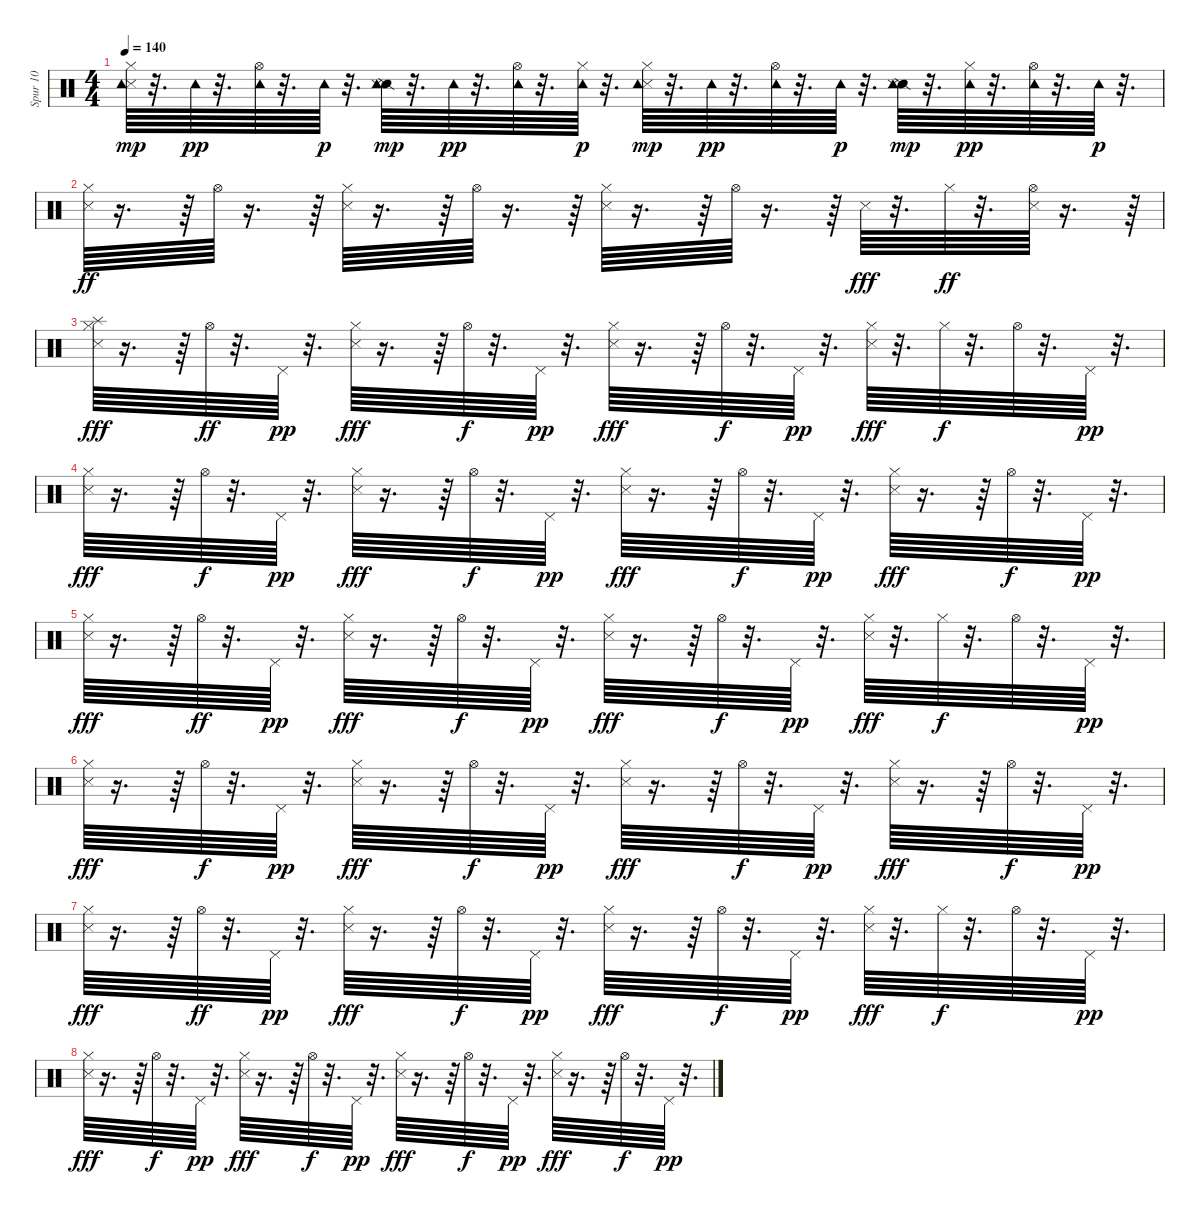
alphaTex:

\track ("Spur 10" "Spur 10") {instrument percussion}
\staff {score}
\articulation defaults
\ts (4 4)
\tempo 140
\clef neutral
\ks c
("Metronome (hit)" "Hi-Hat (closed)" "Tambourine (hit)").64{dy mp} r.32{d} "Tambourine (hit)".64{dy pp} r.32{d} ("Hi-Hat (open)" "Tambourine (hit)").64 r.32{d} "Tambourine (hit)".64{dy p} r.32{d} ("Snare (side stick) 2" "Metronome (hit)" "Tambourine (hit)").64{dy mp} r.32{d} "Tambourine (hit)".64{dy pp} r.32{d} ("Hi-Hat (open)" "Tambourine (hit)").64 r.32{d} ("Hi-Hat (closed)" "Tambourine (hit)").64{dy p} r.32{d} ("Metronome (hit)" "Hi-Hat (closed)" "Tambourine (hit)").64{dy mp} r.32{d} "Tambourine (hit)".64{dy pp} r.32{d} ("Hi-Hat (open)" "Tambourine (hit)").64 r.32{d} "Tambourine (hit)".64{dy p} r.32{d} ("Snare (side stick) 2" "Metronome (hit)" "Tambourine (hit)").64{dy mp} r.32{d} ("Hi-Hat (closed)" "Tambourine (hit)").64{dy pp} r.32{d} ("Hi-Hat (open)" "Tambourine (hit)").64 r.32{d} "Tambourine (hit)".64{dy p} r.32{d} |
("Metronome (hit)" "Hi-Hat (closed)").64{dy ff} r.16{d} r.64 "Hi-Hat (open)".64 r.16{d} r.64 ("Metronome (hit)" "Hi-Hat (closed)").64 r.16{d} r.64 "Hi-Hat (open)".64 r.16{d} r.64 ("Metronome (hit)" "Hi-Hat (closed)").64 r.16{d} r.64 "Hi-Hat (open)".64 r.16{d} r.64 "Metronome (hit)".64{dy fff} r.32{d} "Hi-Hat (closed)".64{dy ff} r.32{d} ("Metronome (hit)" "Hi-Hat (open)").64 r.16{d} r.64 |
("Splash (hit)" "Metronome (hit)" "Hi-Hat (closed)").64{dy fff} r.16{d} r.64 "Hi-Hat (open)".64{dy ff} r.32{d} "Pedal Hi-Hat (hit)".64{dy pp} r.32{d} ("Metronome (hit)" "Hi-Hat (closed)").64{dy fff} r.16{d} r.64 "Hi-Hat (open)".64{dy f} r.32{d} "Pedal Hi-Hat (hit)".64{dy pp} r.32{d} ("Metronome (hit)" "Hi-Hat (closed)").64{dy fff} r.16{d} r.64 "Hi-Hat (open)".64{dy f} r.32{d} "Pedal Hi-Hat (hit)".64{dy pp} r.32{d} ("Metronome (hit)" "Hi-Hat (closed)").64{dy fff} r.32{d} "Hi-Hat (closed)".64{dy f} r.32{d} "Hi-Hat (open)".64 r.32{d} "Pedal Hi-Hat (hit)".64{dy pp} r.32{d} |
("Metronome (hit)" "Hi-Hat (closed)").64{dy fff} r.16{d} r.64 "Hi-Hat (open)".64{dy f} r.32{d} "Pedal Hi-Hat (hit)".64{dy pp} r.32{d} ("Metronome (hit)" "Hi-Hat (closed)").64{dy fff} r.16{d} r.64 "Hi-Hat (open)".64{dy f} r.32{d} "Pedal Hi-Hat (hit)".64{dy pp} r.32{d} ("Metronome (hit)" "Hi-Hat (closed)").64{dy fff} r.16{d} r.64 "Hi-Hat (open)".64{dy f} r.32{d} "Pedal Hi-Hat (hit)".64{dy pp} r.32{d} ("Metronome (hit)" "Hi-Hat (closed)").64{dy fff} r.16{d} r.64 "Hi-Hat (open)".64{dy f} r.32{d} "Pedal Hi-Hat (hit)".64{dy pp} r.32{d} |
("Metronome (hit)" "Hi-Hat (closed)").64{dy fff} r.16{d} r.64 "Hi-Hat (open)".64{dy ff} r.32{d} "Pedal Hi-Hat (hit)".64{dy pp} r.32{d} ("Metronome (hit)" "Hi-Hat (closed)").64{dy fff} r.16{d} r.64 "Hi-Hat (open)".64{dy f} r.32{d} "Pedal Hi-Hat (hit)".64{dy pp} r.32{d} ("Metronome (hit)" "Hi-Hat (closed)").64{dy fff} r.16{d} r.64 "Hi-Hat (open)".64{dy f} r.32{d} "Pedal Hi-Hat (hit)".64{dy pp} r.32{d} ("Metronome (hit)" "Hi-Hat (closed)").64{dy fff} r.32{d} "Hi-Hat (closed)".64{dy f} r.32{d} "Hi-Hat (open)".64 r.32{d} "Pedal Hi-Hat (hit)".64{dy pp} r.32{d} |
("Metronome (hit)" "Hi-Hat (closed)").64{dy fff} r.16{d} r.64 "Hi-Hat (open)".64{dy f} r.32{d} "Pedal Hi-Hat (hit)".64{dy pp} r.32{d} ("Metronome (hit)" "Hi-Hat (closed)").64{dy fff} r.16{d} r.64 "Hi-Hat (open)".64{dy f} r.32{d} "Pedal Hi-Hat (hit)".64{dy pp} r.32{d} ("Metronome (hit)" "Hi-Hat (closed)").64{dy fff} r.16{d} r.64 "Hi-Hat (open)".64{dy f} r.32{d} "Pedal Hi-Hat (hit)".64{dy pp} r.32{d} ("Metronome (hit)" "Hi-Hat (closed)").64{dy fff} r.16{d} r.64 "Hi-Hat (open)".64{dy f} r.32{d} "Pedal Hi-Hat (hit)".64{dy pp} r.32{d} |
("Metronome (hit)" "Hi-Hat (closed)").64{dy fff} r.16{d} r.64 "Hi-Hat (open)".64{dy ff} r.32{d} "Pedal Hi-Hat (hit)".64{dy pp} r.32{d} ("Metronome (hit)" "Hi-Hat (closed)").64{dy fff} r.16{d} r.64 "Hi-Hat (open)".64{dy f} r.32{d} "Pedal Hi-Hat (hit)".64{dy pp} r.32{d} ("Metronome (hit)" "Hi-Hat (closed)").64{dy fff} r.16{d} r.64 "Hi-Hat (open)".64{dy f} r.32{d} "Pedal Hi-Hat (hit)".64{dy pp} r.32{d} ("Metronome (hit)" "Hi-Hat (closed)").64{dy fff} r.32{d} "Hi-Hat (closed)".64{dy f} r.32{d} "Hi-Hat (open)".64 r.32{d} "Pedal Hi-Hat (hit)".64{dy pp} r.32{d} |
("Metronome (hit)" "Hi-Hat (closed)").64{dy fff} r.16{d} r.64 "Hi-Hat (open)".64{dy f} r.32{d} "Pedal Hi-Hat (hit)".64{dy pp} r.32{d} ("Metronome (hit)" "Hi-Hat (closed)").64{dy fff} r.16{d} r.64 "Hi-Hat (open)".64{dy f} r.32{d} "Pedal Hi-Hat (hit)".64{dy pp} r.32{d} ("Metronome (hit)" "Hi-Hat (closed)").64{dy fff} r.16{d} r.64 "Hi-Hat (open)".64{dy f} r.32{d} "Pedal Hi-Hat (hit)".64{dy pp} r.32{d} ("Metronome (hit)" "Hi-Hat (closed)").64{dy fff} r.16{d} r.64 "Hi-Hat (open)".64{dy f} r.32{d} "Pedal Hi-Hat (hit)".64{dy pp} r.32{d}
